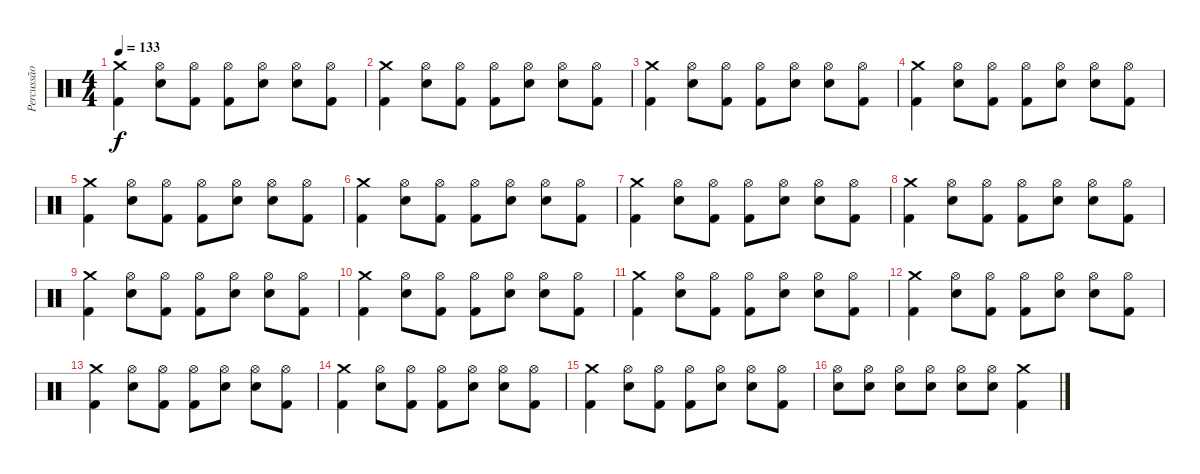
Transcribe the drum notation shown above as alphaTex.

\track ("Percussão" "Percussão") {instrument percussion}
\staff {score}
\articulation defaults
\ts (4 4)
\tempo 133
\clef neutral
\ks c
("Crash medium (hit)" "Kick (hit) 2").4{dy f} ("Electric Snare (hit)" "Hi-Hat (open)").8 ("Kick (hit) 2" "Hi-Hat (open)").8 ("Kick (hit) 2" "Hi-Hat (open)").8 ("Electric Snare (hit)" "Hi-Hat (open)").8 ("Electric Snare (hit)" "Hi-Hat (open)").8 ("Kick (hit) 2" "Hi-Hat (open)").8 |
("Crash medium (hit)" "Kick (hit) 2").4 ("Electric Snare (hit)" "Hi-Hat (open)").8 ("Kick (hit) 2" "Hi-Hat (open)").8 ("Kick (hit) 2" "Hi-Hat (open)").8 ("Electric Snare (hit)" "Hi-Hat (open)").8 ("Electric Snare (hit)" "Hi-Hat (open)").8 ("Kick (hit) 2" "Hi-Hat (open)").8 |
("Crash medium (hit)" "Kick (hit) 2").4 ("Electric Snare (hit)" "Hi-Hat (open)").8 ("Kick (hit) 2" "Hi-Hat (open)").8 ("Kick (hit) 2" "Hi-Hat (open)").8 ("Electric Snare (hit)" "Hi-Hat (open)").8 ("Electric Snare (hit)" "Hi-Hat (open)").8 ("Kick (hit) 2" "Hi-Hat (open)").8 |
("Crash medium (hit)" "Kick (hit) 2").4 ("Electric Snare (hit)" "Hi-Hat (open)").8 ("Kick (hit) 2" "Hi-Hat (open)").8 ("Kick (hit) 2" "Hi-Hat (open)").8 ("Electric Snare (hit)" "Hi-Hat (open)").8 ("Electric Snare (hit)" "Hi-Hat (open)").8 ("Kick (hit) 2" "Hi-Hat (open)").8 |
("Crash medium (hit)" "Kick (hit) 2").4 ("Electric Snare (hit)" "Hi-Hat (open)").8 ("Kick (hit) 2" "Hi-Hat (open)").8 ("Kick (hit) 2" "Hi-Hat (open)").8 ("Electric Snare (hit)" "Hi-Hat (open)").8 ("Electric Snare (hit)" "Hi-Hat (open)").8 ("Kick (hit) 2" "Hi-Hat (open)").8 |
("Crash medium (hit)" "Kick (hit) 2").4 ("Electric Snare (hit)" "Hi-Hat (open)").8 ("Kick (hit) 2" "Hi-Hat (open)").8 ("Kick (hit) 2" "Hi-Hat (open)").8 ("Electric Snare (hit)" "Hi-Hat (open)").8 ("Electric Snare (hit)" "Hi-Hat (open)").8 ("Kick (hit) 2" "Hi-Hat (open)").8 |
("Crash medium (hit)" "Kick (hit) 2").4 ("Electric Snare (hit)" "Hi-Hat (open)").8 ("Kick (hit) 2" "Hi-Hat (open)").8 ("Kick (hit) 2" "Hi-Hat (open)").8 ("Electric Snare (hit)" "Hi-Hat (open)").8 ("Electric Snare (hit)" "Hi-Hat (open)").8 ("Kick (hit) 2" "Hi-Hat (open)").8 |
("Crash medium (hit)" "Kick (hit) 2").4 ("Electric Snare (hit)" "Hi-Hat (open)").8 ("Kick (hit) 2" "Hi-Hat (open)").8 ("Kick (hit) 2" "Hi-Hat (open)").8 ("Electric Snare (hit)" "Hi-Hat (open)").8 ("Electric Snare (hit)" "Hi-Hat (open)").8 ("Kick (hit) 2" "Hi-Hat (open)").8 |
("Crash medium (hit)" "Kick (hit) 2").4 ("Electric Snare (hit)" "Hi-Hat (open)").8 ("Kick (hit) 2" "Hi-Hat (open)").8 ("Kick (hit) 2" "Hi-Hat (open)").8 ("Electric Snare (hit)" "Hi-Hat (open)").8 ("Electric Snare (hit)" "Hi-Hat (open)").8 ("Kick (hit) 2" "Hi-Hat (open)").8 |
("Crash medium (hit)" "Kick (hit) 2").4 ("Electric Snare (hit)" "Hi-Hat (open)").8 ("Kick (hit) 2" "Hi-Hat (open)").8 ("Kick (hit) 2" "Hi-Hat (open)").8 ("Electric Snare (hit)" "Hi-Hat (open)").8 ("Electric Snare (hit)" "Hi-Hat (open)").8 ("Kick (hit) 2" "Hi-Hat (open)").8 |
("Crash medium (hit)" "Kick (hit) 2").4 ("Electric Snare (hit)" "Hi-Hat (open)").8 ("Kick (hit) 2" "Hi-Hat (open)").8 ("Kick (hit) 2" "Hi-Hat (open)").8 ("Electric Snare (hit)" "Hi-Hat (open)").8 ("Electric Snare (hit)" "Hi-Hat (open)").8 ("Kick (hit) 2" "Hi-Hat (open)").8 |
("Crash medium (hit)" "Kick (hit) 2").4 ("Electric Snare (hit)" "Hi-Hat (open)").8 ("Kick (hit) 2" "Hi-Hat (open)").8 ("Kick (hit) 2" "Hi-Hat (open)").8 ("Electric Snare (hit)" "Hi-Hat (open)").8 ("Electric Snare (hit)" "Hi-Hat (open)").8 ("Kick (hit) 2" "Hi-Hat (open)").8 |
("Crash medium (hit)" "Kick (hit) 2").4 ("Electric Snare (hit)" "Hi-Hat (open)").8 ("Kick (hit) 2" "Hi-Hat (open)").8 ("Kick (hit) 2" "Hi-Hat (open)").8 ("Electric Snare (hit)" "Hi-Hat (open)").8 ("Electric Snare (hit)" "Hi-Hat (open)").8 ("Kick (hit) 2" "Hi-Hat (open)").8 |
("Crash medium (hit)" "Kick (hit) 2").4 ("Electric Snare (hit)" "Hi-Hat (open)").8 ("Kick (hit) 2" "Hi-Hat (open)").8 ("Kick (hit) 2" "Hi-Hat (open)").8 ("Electric Snare (hit)" "Hi-Hat (open)").8 ("Electric Snare (hit)" "Hi-Hat (open)").8 ("Kick (hit) 2" "Hi-Hat (open)").8 |
("Crash medium (hit)" "Kick (hit) 2").4 ("Electric Snare (hit)" "Hi-Hat (open)").8 ("Kick (hit) 2" "Hi-Hat (open)").8 ("Kick (hit) 2" "Hi-Hat (open)").8 ("Electric Snare (hit)" "Hi-Hat (open)").8 ("Electric Snare (hit)" "Hi-Hat (open)").8 ("Kick (hit) 2" "Hi-Hat (open)").8 |
("Electric Snare (hit)" "Hi-Hat (open)").8 ("Electric Snare (hit)" "Hi-Hat (open)").8 ("Electric Snare (hit)" "Hi-Hat (open)").8 ("Electric Snare (hit)" "Hi-Hat (open)").8 ("Electric Snare (hit)" "Hi-Hat (open)").8 ("Electric Snare (hit)" "Hi-Hat (open)").8 ("Crash medium (hit)" "Kick (hit) 2").4
